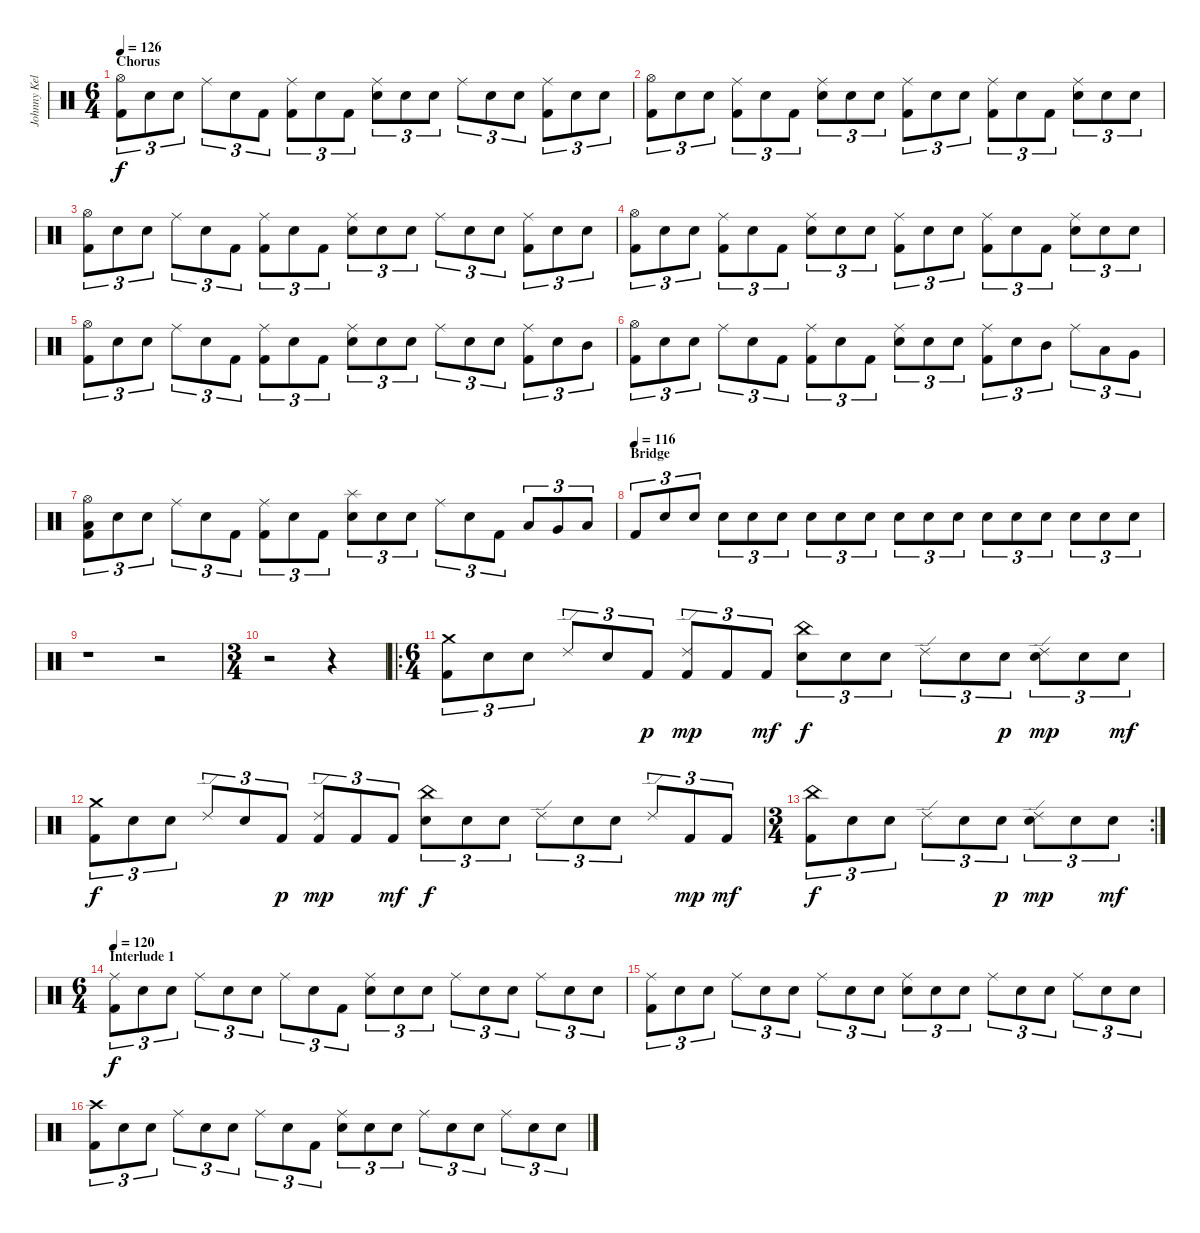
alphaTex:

\track ("Johnny Kelly - Drums" "Johnny Kel") {instrument percussion}
\staff {score}
\articulation defaults
\ts (6 4)
\section ("" "Chorus")
\tempo 126
\clef neutral
\ks c
("Hi-Hat (open)" "Kick (hit) 2").8{tu (3 2) dy f volume 16 balance 8} "Snare (hit)".8{tu (3 2)} "Snare (hit)".8{tu (3 2)} "Ride (middle)".8{tu (3 2)} "Snare (hit)".8{tu (3 2)} "Kick (hit) 2".8{tu (3 2)} ("Ride (middle)" "Kick (hit) 2").8{tu (3 2)} "Snare (hit)".8{tu (3 2)} "Kick (hit) 2".8{tu (3 2)} ("Ride (middle)" "Electric Snare (hit)").8{tu (3 2)} "Snare (hit)".8{tu (3 2)} "Snare (hit)".8{tu (3 2)} "Ride (middle)".8{tu (3 2)} "Snare (hit)".8{tu (3 2)} "Electric Snare (hit)".8{tu (3 2)} ("Ride (middle)" "Kick (hit) 2").8{tu (3 2)} "Snare (hit)".8{tu (3 2)} "Electric Snare (hit)".8{tu (3 2)} |
("Hi-Hat (open)" "Kick (hit) 2").8{tu (3 2)} "Snare (hit)".8{tu (3 2)} "Electric Snare (hit)".8{tu (3 2)} ("Ride (middle)" "Kick (hit) 2").8{tu (3 2)} "Snare (hit)".8{tu (3 2)} "Kick (hit) 2".8{tu (3 2)} ("Ride (middle)" "Electric Snare (hit)").8{tu (3 2)} "Snare (hit)".8{tu (3 2)} "Electric Snare (hit)".8{tu (3 2)} ("Ride (middle)" "Kick (hit) 2").8{tu (3 2)} "Snare (hit)".8{tu (3 2)} "Electric Snare (hit)".8{tu (3 2)} ("Ride (middle)" "Kick (hit) 2").8{tu (3 2)} "Snare (hit)".8{tu (3 2)} "Kick (hit) 2".8{tu (3 2)} ("Ride (middle)" "Electric Snare (hit)").8{tu (3 2)} "Snare (hit)".8{tu (3 2)} "Electric Snare (hit)".8{tu (3 2)} |
("Hi-Hat (open)" "Kick (hit) 2").8{tu (3 2)} "Snare (hit)".8{tu (3 2)} "Snare (hit)".8{tu (3 2)} "Ride (middle)".8{tu (3 2)} "Snare (hit)".8{tu (3 2)} "Kick (hit) 2".8{tu (3 2)} ("Ride (middle)" "Kick (hit) 2").8{tu (3 2)} "Snare (hit)".8{tu (3 2)} "Kick (hit) 2".8{tu (3 2)} ("Ride (middle)" "Electric Snare (hit)").8{tu (3 2)} "Snare (hit)".8{tu (3 2)} "Snare (hit)".8{tu (3 2)} "Ride (middle)".8{tu (3 2)} "Snare (hit)".8{tu (3 2)} "Electric Snare (hit)".8{tu (3 2)} ("Ride (middle)" "Kick (hit) 2").8{tu (3 2)} "Snare (hit)".8{tu (3 2)} "Electric Snare (hit)".8{tu (3 2)} |
("Hi-Hat (open)" "Kick (hit) 2").8{tu (3 2)} "Snare (hit)".8{tu (3 2)} "Electric Snare (hit)".8{tu (3 2)} ("Ride (middle)" "Kick (hit) 2").8{tu (3 2)} "Snare (hit)".8{tu (3 2)} "Kick (hit) 2".8{tu (3 2)} ("Ride (middle)" "Electric Snare (hit)").8{tu (3 2)} "Snare (hit)".8{tu (3 2)} "Electric Snare (hit)".8{tu (3 2)} ("Ride (middle)" "Kick (hit) 2").8{tu (3 2)} "Snare (hit)".8{tu (3 2)} "Electric Snare (hit)".8{tu (3 2)} ("Ride (middle)" "Kick (hit) 2").8{tu (3 2)} "Snare (hit)".8{tu (3 2)} "Kick (hit) 2".8{tu (3 2)} ("Ride (middle)" "Electric Snare (hit)").8{tu (3 2)} "Snare (hit)".8{tu (3 2)} "Electric Snare (hit)".8{tu (3 2)} |
("Hi-Hat (open)" "Kick (hit) 2").8{tu (3 2)} "Snare (hit)".8{tu (3 2)} "Snare (hit)".8{tu (3 2)} "Ride (middle)".8{tu (3 2)} "Snare (hit)".8{tu (3 2)} "Kick (hit) 2".8{tu (3 2)} ("Ride (middle)" "Kick (hit) 2").8{tu (3 2)} "Snare (hit)".8{tu (3 2)} "Kick (hit) 2".8{tu (3 2)} ("Ride (middle)" "Electric Snare (hit)").8{tu (3 2)} "Snare (hit)".8{tu (3 2)} "Snare (hit)".8{tu (3 2)} "Ride (middle)".8{tu (3 2)} "Snare (hit)".8{tu (3 2)} "Electric Snare (hit)".8{tu (3 2)} ("Ride (middle)" "Kick (hit) 2").8{tu (3 2)} "Snare (hit)".8{tu (3 2)} "Mid Tom (hit)".8{tu (3 2)} |
("Hi-Hat (open)" "Kick (hit) 2").8{tu (3 2)} "Snare (hit)".8{tu (3 2)} "Snare (hit)".8{tu (3 2)} "Ride (middle)".8{tu (3 2)} "Snare (hit)".8{tu (3 2)} "Kick (hit) 2".8{tu (3 2)} ("Ride (middle)" "Kick (hit) 2").8{tu (3 2)} "Snare (hit)".8{tu (3 2)} "Kick (hit) 2".8{tu (3 2)} ("Ride (middle)" "Electric Snare (hit)").8{tu (3 2)} "Snare (hit)".8{tu (3 2)} "Electric Snare (hit)".8{tu (3 2)} ("Ride (middle)" "Kick (hit) 2").8{tu (3 2)} "Snare (hit)".8{tu (3 2)} "Mid Tom (hit)".8{tu (3 2)} "Ride (middle)".8{tu (3 2)} "Low Tom (hit)".8{tu (3 2)} "Very Low Tom (hit)".8{tu (3 2)} |
("Hi-Hat (open)" "Low Floor Tom (hit)" "Kick (hit) 2").8{tu (3 2)} "Snare (hit)".8{tu (3 2)} "Snare (hit)".8{tu (3 2)} "Ride (middle)".8{tu (3 2)} "Snare (hit)".8{tu (3 2)} "Kick (hit) 2".8{tu (3 2)} ("Ride (middle)" "Kick (hit) 2").8{tu (3 2)} "Snare (hit)".8{tu (3 2)} "Kick (hit) 2".8{tu (3 2)} ("Splash (hit)" "Electric Snare (hit)").8{tu (3 2)} "Snare (hit)".8{tu (3 2)} "Snare (hit)".8{tu (3 2)} "Ride (middle)".8{tu (3 2)} "Electric Snare (hit)".8{tu (3 2)} "Kick (hit) 2".8{tu (3 2)} "Low Tom (hit)".8{tu (3 2)} "Very Low Tom (hit)".8{tu (3 2)} "Low Floor Tom (hit)".8{tu (3 2)} |
\section ("" "Bridge")
\tempo (116)
"Kick (hit) 2".8{tu (3 2) volume 16 balance 8} "Snare (hit)".8{tu (3 2)} "Snare (hit)".8{tu (3 2)} "Snare (hit)".8{tu (3 2)} "Snare (hit)".8{tu (3 2)} "Snare (hit)".8{tu (3 2)} "Snare (hit)".8{tu (3 2)} "Snare (hit)".8{tu (3 2)} "Snare (hit)".8{tu (3 2)} "Snare (hit)".8{tu (3 2)} "Snare (hit)".8{tu (3 2)} "Snare (hit)".8{tu (3 2)} "Snare (hit)".8{tu (3 2)} "Snare (hit)".8{tu (3 2)} "Snare (hit)".8{tu (3 2)} "Snare (hit)".8{tu (3 2)} "Snare (hit)".8{tu (3 2)} "Snare (hit)".8{tu (3 2)} |
r.1 r.2 |
\ts (3 4)
r.2 r.4 |
\ro
\ts (6 4)
("Crash medium (hit)" "Kick (hit) 2").8{tu (3 2)} "Snare (hit)".8{tu (3 2)} "Snare (hit)".8{tu (3 2)} "Ride (edge) 2".8{tu (3 2)} "Snare (hit)".8{tu (3 2)} "Kick (hit) 2".8{tu (3 2) dy p} ("Ride (edge) 2" "Kick (hit) 2").8{tu (3 2) dy mp} "Kick (hit) 2".8{tu (3 2)} "Kick (hit) 2".8{tu (3 2) dy mf} ("China (hit)" "Electric Snare (hit)").8{tu (3 2) dy f} "Snare (hit)".8{tu (3 2)} "Snare (hit)".8{tu (3 2)} "Ride (edge) 2".8{tu (3 2)} "Snare (hit)".8{tu (3 2)} "Electric Snare (hit)".8{tu (3 2) dy p} ("Ride (edge) 2" "Electric Snare (hit)").8{tu (3 2) dy mp} "Electric Snare (hit)".8{tu (3 2)} "Electric Snare (hit)".8{tu (3 2) dy mf} |
("Crash medium (hit)" "Kick (hit) 2").8{tu (3 2) dy f} "Snare (hit)".8{tu (3 2)} "Snare (hit)".8{tu (3 2)} "Ride (edge) 2".8{tu (3 2)} "Snare (hit)".8{tu (3 2)} "Kick (hit) 2".8{tu (3 2) dy p} ("Ride (edge) 2" "Kick (hit) 2").8{tu (3 2) dy mp} "Kick (hit) 2".8{tu (3 2)} "Kick (hit) 2".8{tu (3 2) dy mf} ("China (hit)" "Electric Snare (hit)").8{tu (3 2) dy f} "Snare (hit)".8{tu (3 2)} "Snare (hit)".8{tu (3 2)} "Ride (edge) 2".8{tu (3 2)} "Snare (hit)".8{tu (3 2)} "Snare (hit)".8{tu (3 2)} "Ride (edge) 2".8{tu (3 2)} "Kick (hit) 2".8{tu (3 2) dy mp} "Kick (hit) 2".8{tu (3 2) dy mf} |
\rc 2
\ts (3 4)
("China (hit)" "Kick (hit) 2").8{tu (3 2) dy f} "Snare (hit)".8{tu (3 2)} "Snare (hit)".8{tu (3 2)} "Ride (edge) 2".8{tu (3 2)} "Snare (hit)".8{tu (3 2)} "Electric Snare (hit)".8{tu (3 2) dy p} ("Ride (edge) 2" "Electric Snare (hit)").8{tu (3 2) dy mp} "Electric Snare (hit)".8{tu (3 2)} "Electric Snare (hit)".8{tu (3 2) dy mf} |
\ts (6 4)
\section ("" "Interlude 1")
\tempo 120
("Ride (middle)" "Kick (hit) 2").8{tu (3 2) dy f volume 16 balance 8} "Snare (hit)".8{tu (3 2)} "Snare (hit)".8{tu (3 2)} "Ride (middle)".8{tu (3 2)} "Snare (hit)".8{tu (3 2)} "Snare (hit)".8{tu (3 2)} "Ride (middle)".8{tu (3 2)} "Snare (hit)".8{tu (3 2)} "Kick (hit) 2".8{tu (3 2)} ("Ride (middle)" "Electric Snare (hit)").8{tu (3 2)} "Snare (hit)".8{tu (3 2)} "Snare (hit)".8{tu (3 2)} "Ride (middle)".8{tu (3 2)} "Snare (hit)".8{tu (3 2)} "Snare (hit)".8{tu (3 2)} "Ride (middle)".8{tu (3 2)} "Snare (hit)".8{tu (3 2)} "Snare (hit)".8{tu (3 2)} |
("Ride (middle)" "Kick (hit) 2").8{tu (3 2)} "Snare (hit)".8{tu (3 2)} "Snare (hit)".8{tu (3 2)} "Ride (middle)".8{tu (3 2)} "Snare (hit)".8{tu (3 2)} "Snare (hit)".8{tu (3 2)} "Ride (middle)".8{tu (3 2)} "Snare (hit)".8{tu (3 2)} "Snare (hit)".8{tu (3 2)} ("Ride (middle)" "Electric Snare (hit)").8{tu (3 2)} "Snare (hit)".8{tu (3 2)} "Snare (hit)".8{tu (3 2)} "Ride (middle)".8{tu (3 2)} "Snare (hit)".8{tu (3 2)} "Snare (hit)".8{tu (3 2)} "Ride (middle)".8{tu (3 2)} "Snare (hit)".8{tu (3 2)} "Snare (hit)".8{tu (3 2)} |
("Crash high (hit)" "Kick (hit) 2").8{tu (3 2)} "Snare (hit)".8{tu (3 2)} "Snare (hit)".8{tu (3 2)} "Ride (middle)".8{tu (3 2)} "Snare (hit)".8{tu (3 2)} "Snare (hit)".8{tu (3 2)} "Ride (middle)".8{tu (3 2)} "Snare (hit)".8{tu (3 2)} "Kick (hit) 2".8{tu (3 2)} ("Ride (middle)" "Electric Snare (hit)").8{tu (3 2)} "Snare (hit)".8{tu (3 2)} "Snare (hit)".8{tu (3 2)} "Ride (middle)".8{tu (3 2)} "Snare (hit)".8{tu (3 2)} "Snare (hit)".8{tu (3 2)} "Ride (middle)".8{tu (3 2)} "Snare (hit)".8{tu (3 2)} "Snare (hit)".8{tu (3 2)}
